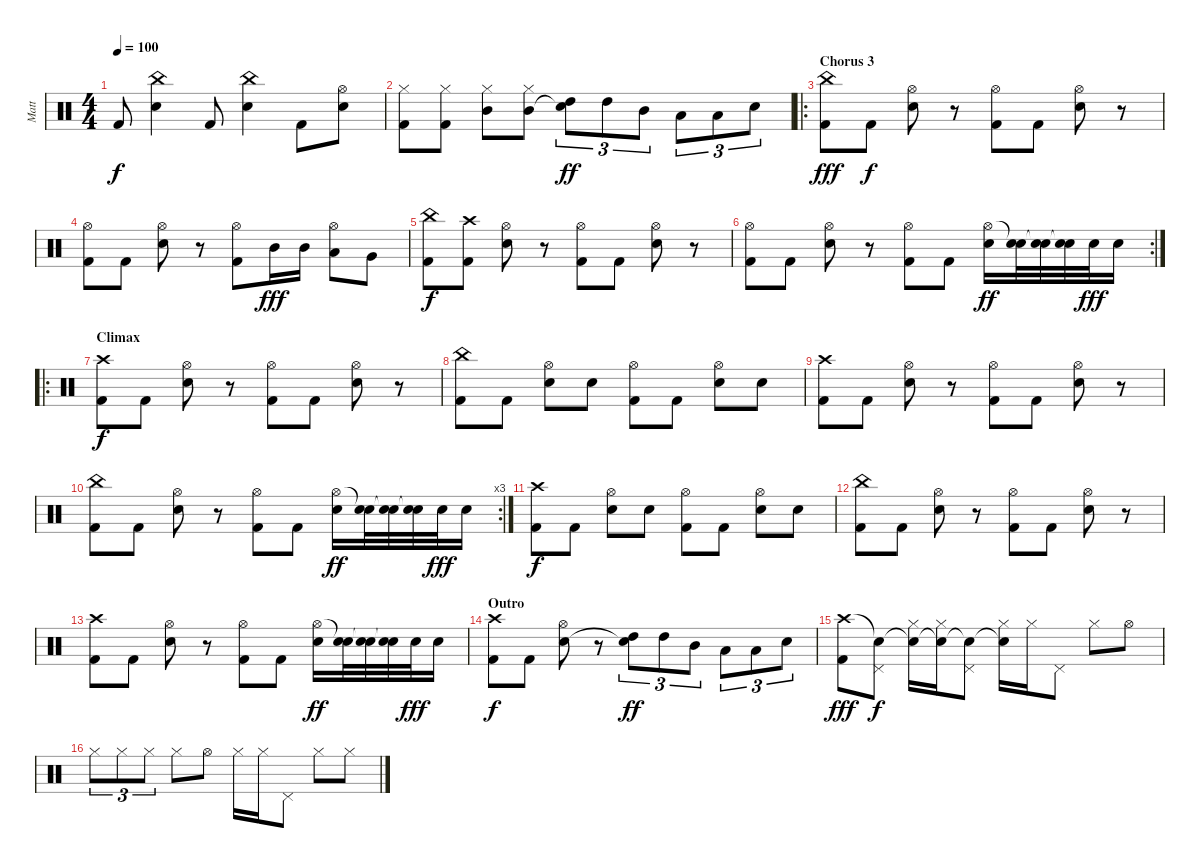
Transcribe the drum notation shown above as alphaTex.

\track ("Matt" "Matt") {instrument percussion}
\staff {score}
\articulation defaults
\ts (4 4)
\tempo 100
\clef neutral
\ks c "Kick (hit) 2".8{dy f}
("China (hit)" "Electric Snare (hit)").4 "Kick (hit) 2".8 ("China (hit)" "Electric Snare (hit)").4 "Kick (hit) 2".8 ("Hi-Hat (open)" "Electric Snare (hit)").8 |
("Hi-Hat (closed)" "Kick (hit) 2").8 ("Hi-Hat (closed)" "Kick (hit) 2").8 ("Hi-Hat (closed)" "Mid Tom (hit)").8 ("Hi-Hat (closed)" "Mid Tom (hit)").8 ("High Tom (hit)" "Snare (hit)"{t}).8{tu (3 2) dy ff} "High Tom (hit)".8{tu (3 2)} "Mid Tom (hit)".8{tu (3 2)} "Low Floor Tom (hit)".8{tu (3 2)} "Low Floor Tom (hit)".8{tu (3 2)} "Snare (hit) 2".8{tu (3 2)} |
\ro
\section ("" "Chorus 3")
("China (hit)" "Kick (hit) 2").8{dy fff} "Kick (hit) 2".8{dy f} ("Hi-Hat (open)" "Electric Snare (hit)").8 r.8 ("Hi-Hat (open)" "Kick (hit) 2").8 "Kick (hit) 2".8 ("Hi-Hat (open)" "Electric Snare (hit)").8 r.8 |
("Hi-Hat (open)" "Kick (hit) 2").8 "Kick (hit) 2".8 ("Hi-Hat (open)" "Electric Snare (hit)").8 r.8 ("Hi-Hat (open)" "Kick (hit) 2").8 "Mid Tom (hit)".16{dy fff} "Mid Tom (hit)".16 ("Hi-Hat (open)" "Low Tom (hit)").8 "Very Low Tom (hit)".8 |
("China (hit)" "Kick (hit) 2").8{dy f} ("Crash high (hit)" "Kick (hit) 2").8 ("Hi-Hat (open)" "Electric Snare (hit)").8 r.8 ("Hi-Hat (open)" "Kick (hit) 2").8 "Kick (hit) 2".8 ("Hi-Hat (open)" "Electric Snare (hit)").8 r.8 |
\rc 2
("Hi-Hat (open)" "Kick (hit) 2").8 "Kick (hit) 2".8 ("Hi-Hat (open)" "Electric Snare (hit)").8 r.8 ("Hi-Hat (open)" "Kick (hit) 2").8 "Kick (hit) 2".8 ("Hi-Hat (open)" "Electric Snare (hit)").16{dy ff} ("Snare (hit)"{t} "Electric Snare (hit)").32 ("Snare (hit)"{t} "Electric Snare (hit)").32 ("Snare (hit)"{t} "Electric Snare (hit)").32 "Electric Snare (hit)".32{dy fff} "Electric Snare (hit)".16 |
\ro
\section ("" "Climax")
("Crash high (hit)" "Kick (hit) 2").8{dy f} "Kick (hit) 2".8 ("Hi-Hat (open)" "Electric Snare (hit)").8 r.8 ("Hi-Hat (open)" "Kick (hit) 2").8 "Kick (hit) 2".8 ("Hi-Hat (open)" "Electric Snare (hit)").8 r.8 |
("China (hit)" "Kick (hit) 2").8 "Kick (hit) 2".8 ("Hi-Hat (open)" "Electric Snare (hit)").8 "Electric Snare (hit)".8 ("Hi-Hat (open)" "Kick (hit) 2").8 "Kick (hit) 2".8 ("Hi-Hat (open)" "Electric Snare (hit)").8 "Electric Snare (hit)".8 |
("Crash high (hit)" "Kick (hit) 2").8 "Kick (hit) 2".8 ("Hi-Hat (open)" "Electric Snare (hit)").8 r.8 ("Hi-Hat (open)" "Kick (hit) 2").8 "Kick (hit) 2".8 ("Hi-Hat (open)" "Electric Snare (hit)").8 r.8 |
\rc 3
("China (hit)" "Kick (hit) 2").8 "Kick (hit) 2".8 ("Hi-Hat (open)" "Electric Snare (hit)").8 r.8 ("Hi-Hat (open)" "Kick (hit) 2").8 "Kick (hit) 2".8 ("Hi-Hat (open)" "Electric Snare (hit)").16{dy ff} ("Snare (hit)"{t} "Electric Snare (hit)").32 ("Snare (hit)"{t} "Electric Snare (hit)").32 ("Snare (hit)"{t} "Electric Snare (hit)").32 "Electric Snare (hit)".32{dy fff} "Electric Snare (hit)".16 |
("Crash high (hit)" "Kick (hit) 2").8{dy f} "Kick (hit) 2".8 ("Hi-Hat (open)" "Electric Snare (hit)").8 "Electric Snare (hit)".8 ("Hi-Hat (open)" "Kick (hit) 2").8 "Kick (hit) 2".8 ("Hi-Hat (open)" "Electric Snare (hit)").8 "Electric Snare (hit)".8 |
("China (hit)" "Kick (hit) 2").8 "Kick (hit) 2".8 ("Hi-Hat (open)" "Electric Snare (hit)").8 r.8 ("Hi-Hat (open)" "Kick (hit) 2").8 "Kick (hit) 2".8 ("Hi-Hat (open)" "Electric Snare (hit)").8 r.8 |
("Crash high (hit)" "Kick (hit) 2").8 "Kick (hit) 2".8 ("Hi-Hat (open)" "Electric Snare (hit)").8 r.8 ("Hi-Hat (open)" "Kick (hit) 2").8 "Kick (hit) 2".8 ("Hi-Hat (open)" "Electric Snare (hit)").16{dy ff} ("Snare (hit)"{t} "Electric Snare (hit)").32 ("Snare (hit)"{t} "Electric Snare (hit)").32 ("Snare (hit)"{t} "Electric Snare (hit)").32 "Electric Snare (hit)".32{dy fff} "Electric Snare (hit)".16 |
\section ("" "Outro")
("Crash high (hit)" "Kick (hit) 2").8{dy f} "Kick (hit) 2".8 ("Hi-Hat (open)" "Electric Snare (hit)").8 r.8 ("High Tom (hit)" "Snare (hit)"{t}).8{tu (3 2) dy ff} "High Tom (hit)".8{tu (3 2)} "Mid Tom (hit)".8{tu (3 2)} "Low Floor Tom (hit)".8{tu (3 2)} "Low Floor Tom (hit)".8{tu (3 2)} "Snare (hit) 2".8{tu (3 2)} |
("Crash high (hit)" "Kick (hit) 2").8{dy fff} ("Snare (hit)"{t} "Pedal Hi-Hat (hit)").8{dy f} ("Snare (hit)"{t} "Hi-Hat (closed)").16 ("Snare (hit)"{t} "Hi-Hat (closed)").16 ("Snare (hit)"{t} "Pedal Hi-Hat (hit)").8 ("Snare (hit)"{t} "Hi-Hat (closed)").16 "Hi-Hat (closed)".16 "Pedal Hi-Hat (hit)".8 "Hi-Hat (closed)".8 "Hi-Hat (open)".8 |
"Hi-Hat (closed)".8{tu (3 2)} "Hi-Hat (closed)".8{tu (3 2)} "Hi-Hat (closed)".8{tu (3 2)} "Hi-Hat (closed)".8 "Hi-Hat (open)".8 "Hi-Hat (closed)".16 "Hi-Hat (closed)".16 "Pedal Hi-Hat (hit)".8 "Hi-Hat (closed)".8 "Hi-Hat (closed)".8
